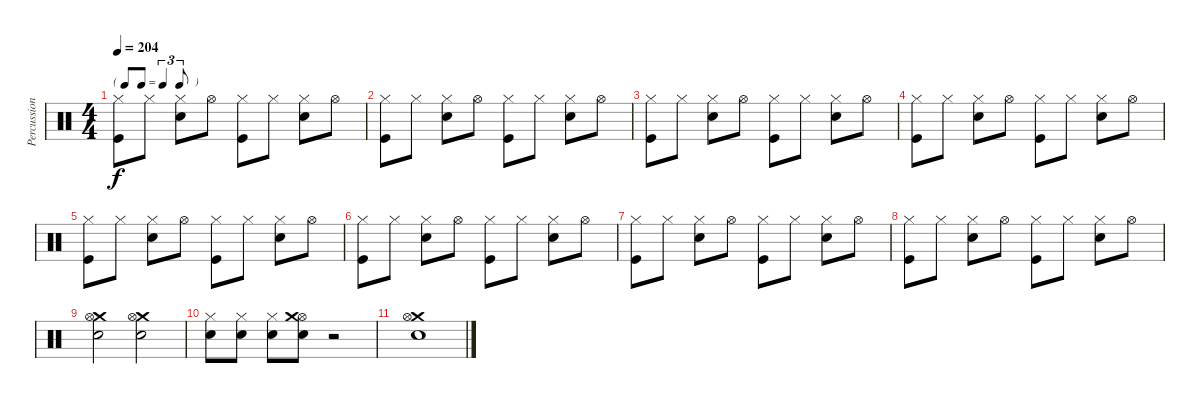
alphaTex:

\track ("Percussions" "Percussion") {instrument percussion}
\staff {score}
\articulation defaults
\ts (4 4)
\tf triplet8th
\tempo 204
\clef neutral
\ks c
("Hi-Hat (closed)" "Kick (hit)").8{dy f} "Hi-Hat (closed)".8 ("Hi-Hat (closed)" "Snare (hit) 2").8 "Hi-Hat (open)".8 ("Hi-Hat (closed)" "Kick (hit)").8 "Hi-Hat (closed)".8 ("Hi-Hat (closed)" "Snare (hit) 2").8 "Hi-Hat (open)".8 |
("Hi-Hat (closed)" "Kick (hit)").8 "Hi-Hat (closed)".8 ("Hi-Hat (closed)" "Snare (hit) 2").8 "Hi-Hat (open)".8 ("Hi-Hat (closed)" "Kick (hit)").8 "Hi-Hat (closed)".8 ("Hi-Hat (closed)" "Snare (hit) 2").8 "Hi-Hat (open)".8 |
("Hi-Hat (closed)" "Kick (hit)").8 "Hi-Hat (closed)".8 ("Hi-Hat (closed)" "Snare (hit) 2").8 "Hi-Hat (open)".8 ("Hi-Hat (closed)" "Kick (hit)").8 "Hi-Hat (closed)".8 ("Hi-Hat (closed)" "Snare (hit) 2").8 "Hi-Hat (open)".8 |
("Hi-Hat (closed)" "Kick (hit)").8 "Hi-Hat (closed)".8 ("Hi-Hat (closed)" "Snare (hit) 2").8 "Hi-Hat (open)".8 ("Hi-Hat (closed)" "Kick (hit)").8 "Hi-Hat (closed)".8 ("Hi-Hat (closed)" "Snare (hit) 2").8 "Hi-Hat (open)".8 |
("Hi-Hat (closed)" "Kick (hit)").8 "Hi-Hat (closed)".8 ("Hi-Hat (closed)" "Snare (hit) 2").8 "Hi-Hat (open)".8 ("Hi-Hat (closed)" "Kick (hit)").8 "Hi-Hat (closed)".8 ("Hi-Hat (closed)" "Snare (hit) 2").8 "Hi-Hat (open)".8 |
("Hi-Hat (closed)" "Kick (hit)").8 "Hi-Hat (closed)".8 ("Hi-Hat (closed)" "Snare (hit) 2").8 "Hi-Hat (open)".8 ("Hi-Hat (closed)" "Kick (hit)").8 "Hi-Hat (closed)".8 ("Hi-Hat (closed)" "Snare (hit) 2").8 "Hi-Hat (open)".8 |
("Hi-Hat (closed)" "Kick (hit)").8 "Hi-Hat (closed)".8 ("Hi-Hat (closed)" "Snare (hit) 2").8 "Hi-Hat (open)".8 ("Hi-Hat (closed)" "Kick (hit)").8 "Hi-Hat (closed)".8 ("Hi-Hat (closed)" "Snare (hit) 2").8 "Hi-Hat (open)".8 |
("Hi-Hat (closed)" "Kick (hit)").8 "Hi-Hat (closed)".8 ("Hi-Hat (closed)" "Snare (hit) 2").8 "Hi-Hat (open)".8 ("Hi-Hat (closed)" "Kick (hit)").8 "Hi-Hat (closed)".8 ("Hi-Hat (closed)" "Snare (hit) 2").8 "Hi-Hat (open)".8 |
("Crash medium (hit)" "Hi-Hat (open)" "Snare (hit) 2").2 ("Crash medium (hit)" "Hi-Hat (open)" "Snare (hit) 2").2 |
("Hi-Hat (closed)" "Snare (hit) 2").8 ("Hi-Hat (closed)" "Snare (hit) 2").8 ("Hi-Hat (closed)" "Snare (hit) 2").8 ("Hi-Hat (open)" "Snare (hit) 2" "Crash medium (hit)").8 r.2 |
("Crash medium (hit)" "Hi-Hat (open)" "Snare (hit) 2").1
